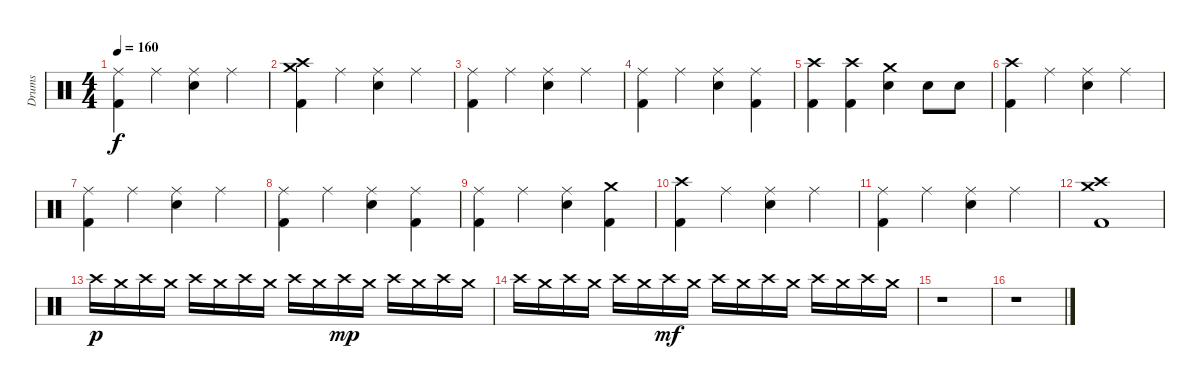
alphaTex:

\track ("Drums" "Drums") {instrument percussion}
\staff {score}
\articulation defaults
\ts (4 4)
\tempo 160
\clef neutral
\ks c
("Ride (middle)" "Kick (hit) 2").4{dy f} "Ride (middle)".4 ("Ride (middle)" "Snare (hit) 2").4 "Ride (middle)".4 |
("Crash high (hit)" "Crash medium (hit)" "Kick (hit) 2").4 "Ride (middle)".4 ("Ride (middle)" "Snare (hit) 2").4 "Ride (middle)".4 |
("Ride (middle)" "Kick (hit) 2").4 "Ride (middle)".4 ("Ride (middle)" "Snare (hit) 2").4 "Ride (middle)".4 |
("Ride (middle)" "Kick (hit) 2").4 "Ride (middle)".4 ("Ride (middle)" "Snare (hit) 2").4 ("Ride (middle)" "Kick (hit) 2").4 |
("Crash high (hit)" "Kick (hit) 2").4 ("Crash high (hit)" "Kick (hit) 2").4 ("Crash medium (hit)" "Snare (hit) 2").4 "Snare (hit) 2".8 "Snare (hit) 2".8 |
("Crash high (hit)" "Kick (hit) 2").4 "Ride (middle)".4 ("Ride (middle)" "Snare (hit) 2").4 "Ride (middle)".4 |
("Ride (middle)" "Kick (hit) 2").4 "Ride (middle)".4 ("Ride (middle)" "Snare (hit) 2").4 "Ride (middle)".4 |
("Ride (middle)" "Kick (hit) 2").4 "Ride (middle)".4 ("Ride (middle)" "Snare (hit) 2").4 ("Ride (middle)" "Kick (hit) 2").4 |
("Ride (middle)" "Kick (hit) 2").4 "Ride (middle)".4 ("Ride (middle)" "Snare (hit) 2").4 ("Crash medium (hit)" "Kick (hit) 2").4 |
("Crash high (hit)" "Kick (hit) 2").4 "Ride (middle)".4 ("Ride (middle)" "Snare (hit) 2").4 "Ride (middle)".4 |
("Ride (middle)" "Kick (hit) 2").4 "Ride (middle)".4 ("Ride (middle)" "Snare (hit) 2").4 "Ride (middle)".4 |
("Crash high (hit)" "Crash medium (hit)" "Kick (hit) 2").1 |
"Crash high (hit)".16{dy p} "Crash medium (hit)".16 "Crash high (hit)".16 "Crash medium (hit)".16 "Crash high (hit)".16 "Crash medium (hit)".16 "Crash high (hit)".16 "Crash medium (hit)".16 "Crash high (hit)".16 "Crash medium (hit)".16 "Crash high (hit)".16{dy mp} "Crash medium (hit)".16 "Crash high (hit)".16 "Crash medium (hit)".16 "Crash high (hit)".16 "Crash medium (hit)".16 |
"Crash high (hit)".16 "Crash medium (hit)".16 "Crash high (hit)".16 "Crash medium (hit)".16 "Crash high (hit)".16 "Crash medium (hit)".16 "Crash high (hit)".16{dy mf} "Crash medium (hit)".16 "Crash high (hit)".16 "Crash medium (hit)".16 "Crash high (hit)".16 "Crash medium (hit)".16 "Crash high (hit)".16 "Crash medium (hit)".16 "Crash high (hit)".16 "Crash medium (hit)".16 |
r.1 |
r.1
